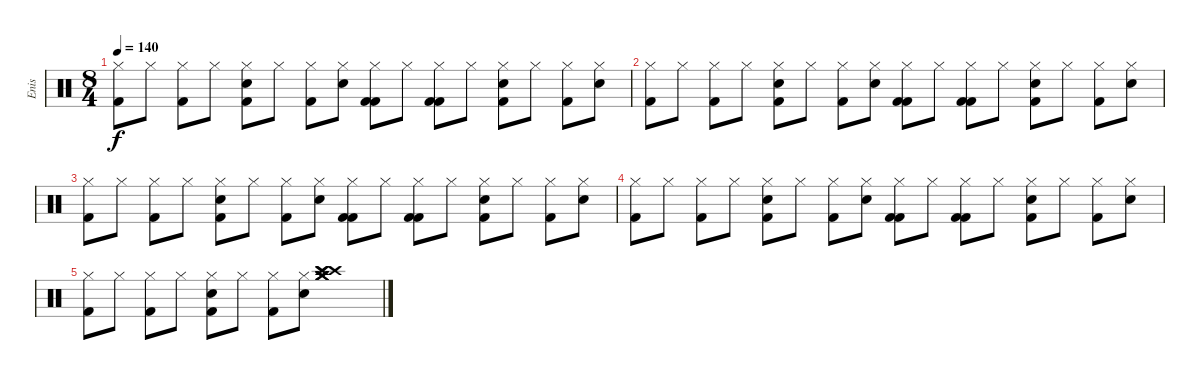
\track ("Enis" "Enis") {instrument percussion}
\staff {score}
\articulation defaults
\ts (8 4)
\tempo 140
\clef neutral
\ks c
("Kick (hit) 2" "Hi-Hat (closed)").8{dy f} "Hi-Hat (closed)".8 ("Hi-Hat (closed)" "Kick (hit) 2").8 "Hi-Hat (closed)".8 ("Snare (hit) 2" "Hi-Hat (closed)" "Kick (hit) 2").8 "Hi-Hat (closed)".8 ("Hi-Hat (closed)" "Kick (hit) 2").8 ("Snare (hit) 2" "Hi-Hat (closed)").8 ("Hi-Hat (closed)" "Kick (hit) 2" "Kick (hit) 2").8 "Hi-Hat (closed)".8 ("Kick (hit) 2" "Hi-Hat (closed)" "Kick (hit) 2").8 "Hi-Hat (closed)".8 ("Snare (hit) 2" "Hi-Hat (closed)" "Kick (hit) 2").8 "Hi-Hat (closed)".8 ("Hi-Hat (closed)" "Kick (hit) 2").8 ("Snare (hit) 2" "Hi-Hat (closed)").8 |
("Kick (hit) 2" "Hi-Hat (closed)").8 "Hi-Hat (closed)".8 ("Hi-Hat (closed)" "Kick (hit) 2").8 "Hi-Hat (closed)".8 ("Snare (hit) 2" "Hi-Hat (closed)" "Kick (hit) 2").8 "Hi-Hat (closed)".8 ("Hi-Hat (closed)" "Kick (hit) 2").8 ("Snare (hit) 2" "Hi-Hat (closed)").8 ("Hi-Hat (closed)" "Kick (hit) 2" "Kick (hit) 2").8 "Hi-Hat (closed)".8 ("Kick (hit) 2" "Hi-Hat (closed)" "Kick (hit) 2").8 "Hi-Hat (closed)".8 ("Snare (hit) 2" "Hi-Hat (closed)" "Kick (hit) 2").8 "Hi-Hat (closed)".8 ("Hi-Hat (closed)" "Kick (hit) 2").8 ("Snare (hit) 2" "Hi-Hat (closed)").8 |
("Kick (hit) 2" "Hi-Hat (closed)").8 "Hi-Hat (closed)".8 ("Hi-Hat (closed)" "Kick (hit) 2").8 "Hi-Hat (closed)".8 ("Snare (hit) 2" "Hi-Hat (closed)" "Kick (hit) 2").8 "Hi-Hat (closed)".8 ("Hi-Hat (closed)" "Kick (hit) 2").8 ("Snare (hit) 2" "Hi-Hat (closed)").8 ("Hi-Hat (closed)" "Kick (hit) 2" "Kick (hit) 2").8 "Hi-Hat (closed)".8 ("Kick (hit) 2" "Hi-Hat (closed)" "Kick (hit) 2").8 "Hi-Hat (closed)".8 ("Snare (hit) 2" "Hi-Hat (closed)" "Kick (hit) 2").8 "Hi-Hat (closed)".8 ("Hi-Hat (closed)" "Kick (hit) 2").8 ("Snare (hit) 2" "Hi-Hat (closed)").8 |
("Kick (hit) 2" "Hi-Hat (closed)").8 "Hi-Hat (closed)".8 ("Hi-Hat (closed)" "Kick (hit) 2").8 "Hi-Hat (closed)".8 ("Snare (hit) 2" "Hi-Hat (closed)" "Kick (hit) 2").8 "Hi-Hat (closed)".8 ("Hi-Hat (closed)" "Kick (hit) 2").8 ("Snare (hit) 2" "Hi-Hat (closed)").8 ("Hi-Hat (closed)" "Kick (hit) 2" "Kick (hit) 2").8 "Hi-Hat (closed)".8 ("Kick (hit) 2" "Hi-Hat (closed)" "Kick (hit) 2").8 "Hi-Hat (closed)".8 ("Snare (hit) 2" "Hi-Hat (closed)" "Kick (hit) 2").8 "Hi-Hat (closed)".8 ("Hi-Hat (closed)" "Kick (hit) 2").8 ("Snare (hit) 2" "Hi-Hat (closed)").8 |
("Kick (hit) 2" "Hi-Hat (closed)").8 "Hi-Hat (closed)".8 ("Hi-Hat (closed)" "Kick (hit) 2").8 "Hi-Hat (closed)".8 ("Snare (hit) 2" "Hi-Hat (closed)" "Kick (hit) 2").8 "Hi-Hat (closed)".8 ("Hi-Hat (closed)" "Kick (hit) 2").8 ("Snare (hit) 2" "Hi-Hat (closed)").8 ("Crash high (hit)" "Crash high (hit)" "Crash medium (hit)" "Crash high (hit)" "Crash medium (hit)" "Crash medium (hit)").1
